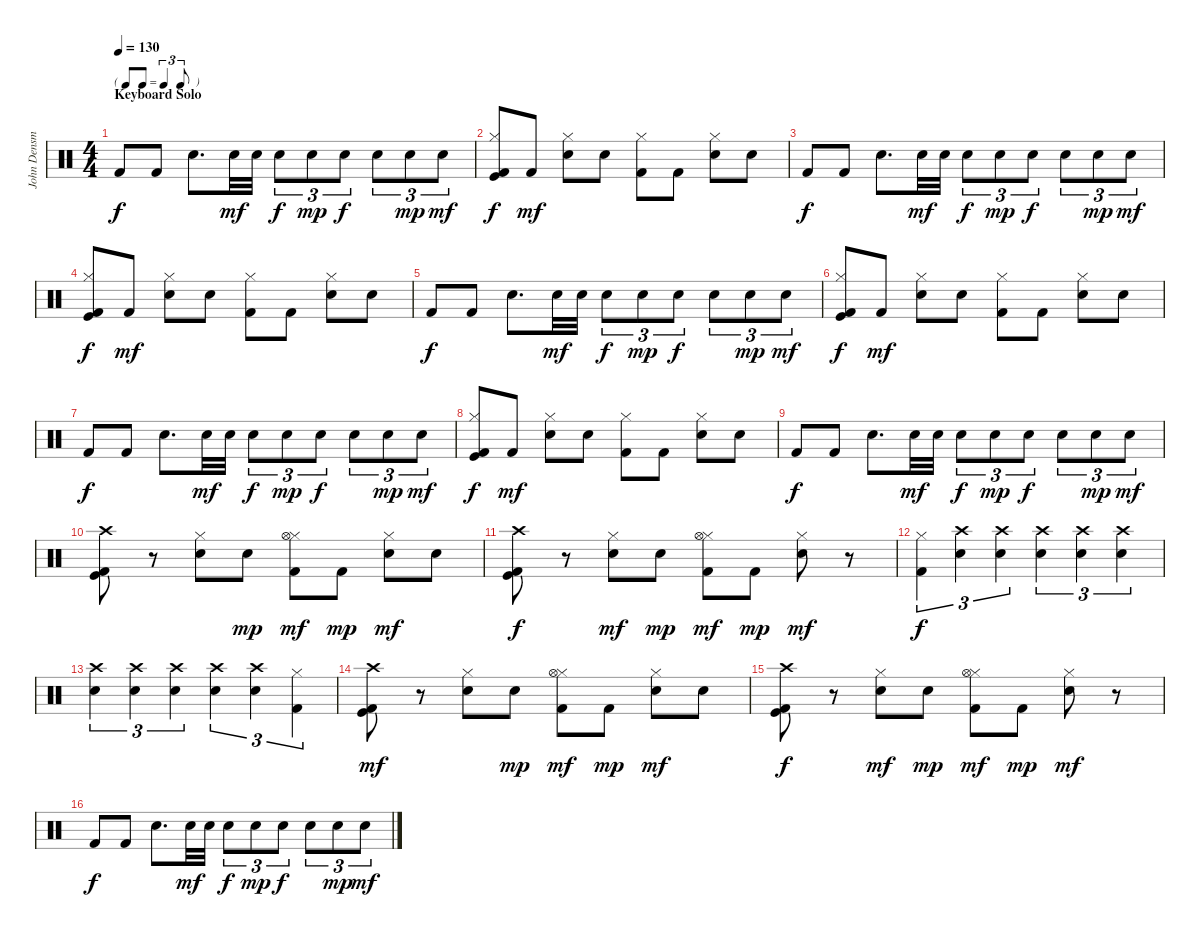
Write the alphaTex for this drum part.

\track ("John Densmore" "John Densm") {instrument percussion}
\staff {score}
\articulation defaults
\ts (4 4)
\tf triplet8th
\section ("" "Keyboard Solo")
\tempo 130
\clef neutral
\ks c "Kick (hit) 2".8{dy f} "Kick (hit) 2".8 "Electric Snare (hit)".8{d} "Snare (hit) 2".32{dy mf} "Electric Snare (hit)".32 "Electric Snare (hit)".8{tu (3 2) dy f} "Electric Snare (hit)".8{tu (3 2) dy mp} "Electric Snare (hit)".8{tu (3 2) dy f} "Snare (hit) 2".8{tu (3 2)} "Snare (hit) 2".8{tu (3 2) dy mp} "Snare (hit) 2".8{tu (3 2) dy mf}
|
("Kick (hit) 2" "Hi-Hat (closed)" "Kick (hit)").8{dy f} "Kick (hit) 2".8{dy mf} ("Electric Snare (hit)" "Hi-Hat (closed)").8 "Electric Snare (hit)".8 ("Kick (hit) 2" "Hi-Hat (closed)").8 "Kick (hit) 2".8 ("Electric Snare (hit)" "Hi-Hat (closed)").8 "Electric Snare (hit)".8 |
"Kick (hit) 2".8{dy f} "Kick (hit) 2".8 "Electric Snare (hit)".8{d} "Snare (hit) 2".32{dy mf} "Electric Snare (hit)".32 "Electric Snare (hit)".8{tu (3 2) dy f} "Electric Snare (hit)".8{tu (3 2) dy mp} "Electric Snare (hit)".8{tu (3 2) dy f} "Snare (hit) 2".8{tu (3 2)} "Snare (hit) 2".8{tu (3 2) dy mp} "Snare (hit) 2".8{tu (3 2) dy mf} |
("Kick (hit) 2" "Hi-Hat (closed)" "Kick (hit)").8{dy f} "Kick (hit) 2".8{dy mf} ("Electric Snare (hit)" "Hi-Hat (closed)").8 "Electric Snare (hit)".8 ("Kick (hit) 2" "Hi-Hat (closed)").8 "Kick (hit) 2".8 ("Electric Snare (hit)" "Hi-Hat (closed)").8 "Electric Snare (hit)".8 |
"Kick (hit) 2".8{dy f} "Kick (hit) 2".8 "Electric Snare (hit)".8{d} "Snare (hit) 2".32{dy mf} "Electric Snare (hit)".32 "Electric Snare (hit)".8{tu (3 2) dy f} "Electric Snare (hit)".8{tu (3 2) dy mp} "Electric Snare (hit)".8{tu (3 2) dy f} "Snare (hit) 2".8{tu (3 2)} "Snare (hit) 2".8{tu (3 2) dy mp} "Snare (hit) 2".8{tu (3 2) dy mf} |
("Kick (hit) 2" "Hi-Hat (closed)" "Kick (hit)").8{dy f} "Kick (hit) 2".8{dy mf} ("Electric Snare (hit)" "Hi-Hat (closed)").8 "Electric Snare (hit)".8 ("Kick (hit) 2" "Hi-Hat (closed)").8 "Kick (hit) 2".8 ("Electric Snare (hit)" "Hi-Hat (closed)").8 "Electric Snare (hit)".8 |
"Kick (hit) 2".8{dy f} "Kick (hit) 2".8 "Electric Snare (hit)".8{d} "Snare (hit) 2".32{dy mf} "Electric Snare (hit)".32 "Electric Snare (hit)".8{tu (3 2) dy f} "Electric Snare (hit)".8{tu (3 2) dy mp} "Electric Snare (hit)".8{tu (3 2) dy f} "Snare (hit) 2".8{tu (3 2)} "Snare (hit) 2".8{tu (3 2) dy mp} "Snare (hit) 2".8{tu (3 2) dy mf} |
("Kick (hit) 2" "Hi-Hat (closed)" "Kick (hit)").8{dy f} "Kick (hit) 2".8{dy mf} ("Electric Snare (hit)" "Hi-Hat (closed)").8 "Electric Snare (hit)".8 ("Kick (hit) 2" "Hi-Hat (closed)").8 "Kick (hit) 2".8 ("Electric Snare (hit)" "Hi-Hat (closed)").8 "Electric Snare (hit)".8 |
"Kick (hit) 2".8{dy f} "Kick (hit) 2".8 "Electric Snare (hit)".8{d} "Snare (hit) 2".32{dy mf} "Electric Snare (hit)".32 "Electric Snare (hit)".8{tu (3 2) dy f} "Electric Snare (hit)".8{tu (3 2) dy mp} "Electric Snare (hit)".8{tu (3 2) dy f} "Snare (hit) 2".8{tu (3 2)} "Snare (hit) 2".8{tu (3 2) dy mp} "Snare (hit) 2".8{tu (3 2) dy mf} |
("Kick (hit) 2" "Kick (hit)" "Crash high (hit)").8 r.8 ("Electric Snare (hit)" "Hi-Hat (closed)").8 "Electric Snare (hit)".8{dy mp} ("Kick (hit) 2" "Hi-Hat (closed)" "Hi-Hat (open)").8{dy mf} "Kick (hit) 2".8{dy mp} ("Electric Snare (hit)" "Hi-Hat (closed)").8{dy mf} "Electric Snare (hit)".8 |
("Kick (hit) 2" "Kick (hit)" "Crash high (hit)").8{dy f} r.8 ("Electric Snare (hit)" "Hi-Hat (closed)").8{dy mf} "Electric Snare (hit)".8{dy mp} ("Kick (hit) 2" "Hi-Hat (closed)" "Hi-Hat (open)").8{dy mf} "Kick (hit) 2".8{dy mp} ("Electric Snare (hit)" "Hi-Hat (closed)").8{dy mf} r.8 |
("Kick (hit) 2" "Hi-Hat (closed)").4{tu (3 2) dy f} ("Electric Snare (hit)" "Crash high (hit)").4{tu (3 2)} ("Electric Snare (hit)" "Crash high (hit)").4{tu (3 2)} ("Electric Snare (hit)" "Crash high (hit)").4{tu (3 2)} ("Electric Snare (hit)" "Crash high (hit)").4{tu (3 2)} ("Electric Snare (hit)" "Crash high (hit)").4{tu (3 2)} |
("Electric Snare (hit)" "Crash high (hit)").4{tu (3 2)} ("Electric Snare (hit)" "Crash high (hit)").4{tu (3 2)} ("Electric Snare (hit)" "Crash high (hit)").4{tu (3 2)} ("Electric Snare (hit)" "Crash high (hit)").4{tu (3 2)} ("Electric Snare (hit)" "Crash high (hit)").4{tu (3 2)} ("Kick (hit) 2" "Hi-Hat (closed)").4{tu (3 2)} |
("Kick (hit) 2" "Kick (hit)" "Crash high (hit)").8{dy mf} r.8 ("Electric Snare (hit)" "Hi-Hat (closed)").8 "Electric Snare (hit)".8{dy mp} ("Kick (hit) 2" "Hi-Hat (closed)" "Hi-Hat (open)").8{dy mf} "Kick (hit) 2".8{dy mp} ("Electric Snare (hit)" "Hi-Hat (closed)").8{dy mf} "Electric Snare (hit)".8 |
("Kick (hit) 2" "Kick (hit)" "Crash high (hit)").8{dy f} r.8 ("Electric Snare (hit)" "Hi-Hat (closed)").8{dy mf} "Electric Snare (hit)".8{dy mp} ("Kick (hit) 2" "Hi-Hat (closed)" "Hi-Hat (open)").8{dy mf} "Kick (hit) 2".8{dy mp} ("Electric Snare (hit)" "Hi-Hat (closed)").8{dy mf} r.8 |
"Kick (hit) 2".8{dy f} "Kick (hit) 2".8 "Electric Snare (hit)".8{d} "Snare (hit) 2".32{dy mf} "Electric Snare (hit)".32 "Electric Snare (hit)".8{tu (3 2) dy f} "Electric Snare (hit)".8{tu (3 2) dy mp} "Electric Snare (hit)".8{tu (3 2) dy f} "Snare (hit) 2".8{tu (3 2)} "Snare (hit) 2".8{tu (3 2) dy mp} "Snare (hit) 2".8{tu (3 2) dy mf}
